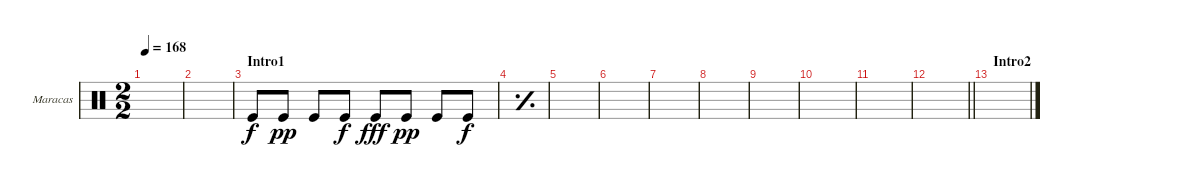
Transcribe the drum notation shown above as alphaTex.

\bracketExtendMode groupsimilarinstruments
\multiTrackTrackNamePolicy hidden
\firstSystemTrackNameOrientation horizontal
\otherSystemsTrackNameOrientation horizontal
\track ("Maracas" "Maracas") {mute instrument percussion}
\staff {score}
\articulation defaults
\ts (2 2)
\tempo 168
\clef neutral
\ks c
|
|
\section ("" "Intro1")
"Kick (hit)".8 "Kick (hit)".8{dy pp} "Kick (hit)".8 "Kick (hit)".8{dy f} "Kick (hit)".8{dy fff} "Kick (hit)".8{dy pp} "Kick (hit)".8 "Kick (hit)".8{dy f} |
\simile simple
|
|
|
|
|
|
|
|
\barLineRight lightlight
|
\section ("" "Intro2")
